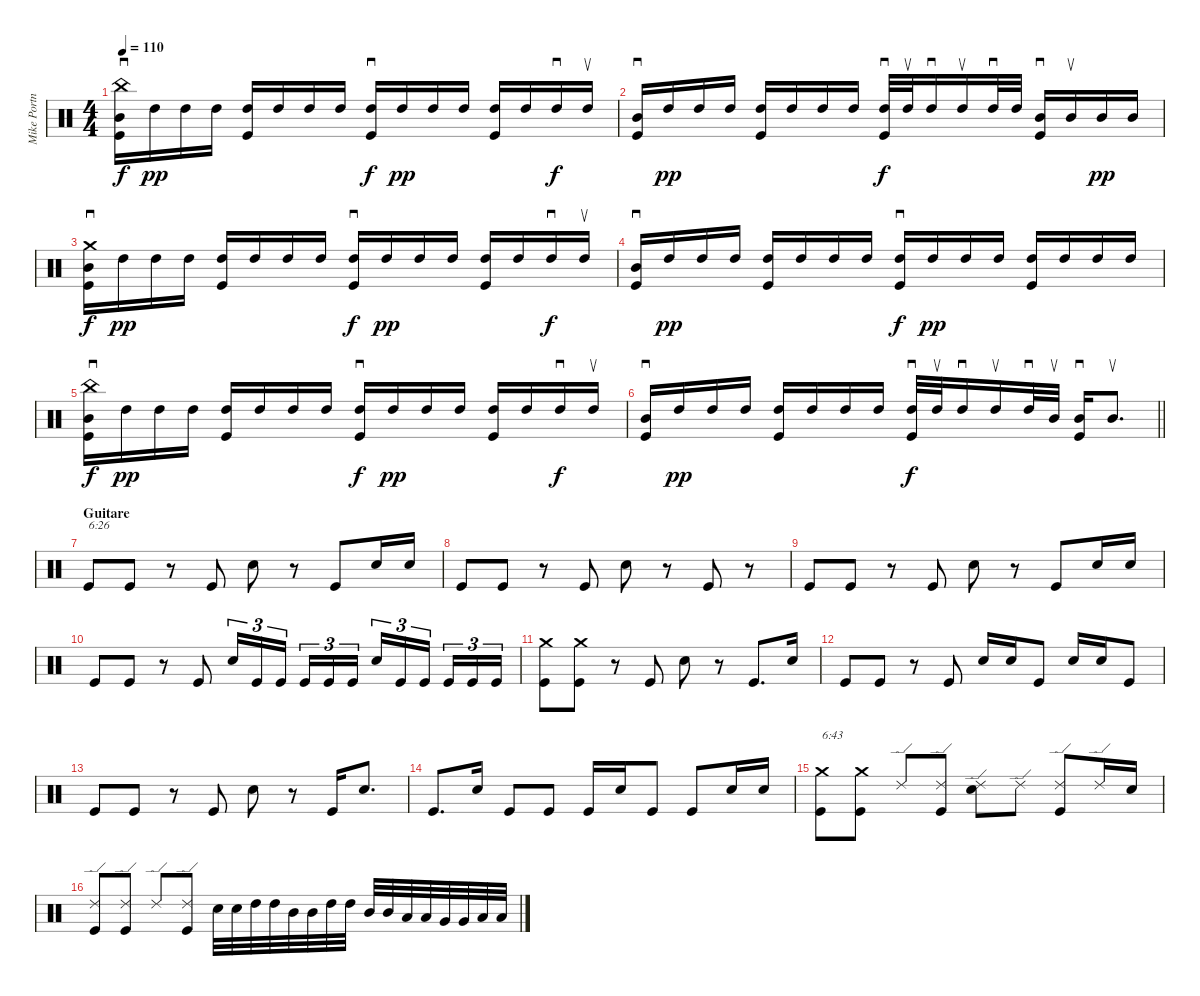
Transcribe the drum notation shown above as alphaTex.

\track ("Mike Portnoy" "Mike Portn") {instrument percussion}
\staff {score}
\articulation defaults
\ts (4 4)
\tempo 110
\clef neutral
\ks c
("China (hit)" "Mid Tom (hit)" "Kick (hit)").16{sd dy f} "High Tom (hit)".16{dy pp} "High Tom (hit)".16 "High Tom (hit)".16 ("High Tom (hit)" "Kick (hit)").16 "High Tom (hit)".16 "High Tom (hit)".16 "High Tom (hit)".16 ("High Tom (hit)" "Kick (hit)").16{sd dy f} "High Tom (hit)".16{dy pp} "High Tom (hit)".16 "High Tom (hit)".16 ("High Tom (hit)" "Kick (hit)").16 "High Tom (hit)".16 "High Tom (hit)".16{sd dy f} "High Tom (hit)".16{su} |
("Mid Tom (hit)" "Kick (hit)").16{sd} "High Tom (hit)".16{dy pp} "High Tom (hit)".16 "High Tom (hit)".16 ("High Tom (hit)" "Kick (hit)").16 "High Tom (hit)".16 "High Tom (hit)".16 "High Tom (hit)".16 ("High Tom (hit)" "Kick (hit)").32{sd dy f} "High Tom (hit)".32{su} "High Tom (hit)".16{sd} "High Tom (hit)".16{su} "High Tom (hit)".32{sd} "High Tom (hit)".32 ("Mid Tom (hit)" "Kick (hit)").16{sd} "Mid Tom (hit)".16{su} "Mid Tom (hit)".16{dy pp} "Mid Tom (hit)".16 |
("Crash medium (hit)" "Mid Tom (hit)" "Kick (hit)").16{sd dy f} "High Tom (hit)".16{dy pp} "High Tom (hit)".16 "High Tom (hit)".16 ("High Tom (hit)" "Kick (hit)").16 "High Tom (hit)".16 "High Tom (hit)".16 "High Tom (hit)".16 ("High Tom (hit)" "Kick (hit)").16{sd dy f} "High Tom (hit)".16{dy pp} "High Tom (hit)".16 "High Tom (hit)".16 ("High Tom (hit)" "Kick (hit)").16 "High Tom (hit)".16 "High Tom (hit)".16{sd dy f} "High Tom (hit)".16{su} |
("Mid Tom (hit)" "Kick (hit)").16{sd} "High Tom (hit)".16{dy pp} "High Tom (hit)".16 "High Tom (hit)".16 ("High Tom (hit)" "Kick (hit)").16 "High Tom (hit)".16 "High Tom (hit)".16 "High Tom (hit)".16 ("High Tom (hit)" "Kick (hit)").16{sd dy f} "High Tom (hit)".16{dy pp} "High Tom (hit)".16 "High Tom (hit)".16 ("High Tom (hit)" "Kick (hit)").16 "High Tom (hit)".16 "High Tom (hit)".16 "High Tom (hit)".16 |
("China (hit)" "Mid Tom (hit)" "Kick (hit)").16{sd dy f} "High Tom (hit)".16{dy pp} "High Tom (hit)".16 "High Tom (hit)".16 ("High Tom (hit)" "Kick (hit)").16 "High Tom (hit)".16 "High Tom (hit)".16 "High Tom (hit)".16 ("High Tom (hit)" "Kick (hit)").16{sd dy f} "High Tom (hit)".16{dy pp} "High Tom (hit)".16 "High Tom (hit)".16 ("High Tom (hit)" "Kick (hit)").16 "High Tom (hit)".16 "High Tom (hit)".16{sd dy f} "High Tom (hit)".16{su} |
\barLineRight lightlight
("Mid Tom (hit)" "Kick (hit)").16{sd} "High Tom (hit)".16{dy pp} "High Tom (hit)".16 "High Tom (hit)".16 ("High Tom (hit)" "Kick (hit)").16 "High Tom (hit)".16 "High Tom (hit)".16 "High Tom (hit)".16 ("High Tom (hit)" "Kick (hit)").32{sd dy f} "High Tom (hit)".32{su} "High Tom (hit)".16{sd} "High Tom (hit)".16{su} "High Tom (hit)".32{sd} "Mid Tom (hit)".32{su} ("Mid Tom (hit)" "Kick (hit)").16{sd} "Mid Tom (hit)".8{d su} |
\section ("" "Guitare")
"Kick (hit)".8{txt "6:26"} "Kick (hit)".8 r.8 "Kick (hit)".8 "Snare (hit) 2".8 r.8 "Kick (hit)".8 "Snare (hit) 2".16 "Snare (hit) 2".16 |
"Kick (hit)".8 "Kick (hit)".8 r.8 "Kick (hit)".8 "Snare (hit) 2".8 r.8 "Kick (hit)".8 r.8 |
"Kick (hit)".8 "Kick (hit)".8 r.8 "Kick (hit)".8 "Snare (hit) 2".8 r.8 "Kick (hit)".8 "Snare (hit) 2".16 "Snare (hit) 2".16 |
"Kick (hit)".8 "Kick (hit)".8 r.8 "Kick (hit)".8 "Snare (hit) 2".16{tu (3 2)} "Kick (hit)".16{tu (3 2)} "Kick (hit)".16{tu (3 2)} "Kick (hit)".16{tu (3 2)} "Kick (hit)".16{tu (3 2)} "Kick (hit)".16{tu (3 2)} "Snare (hit) 2".16{tu (3 2)} "Kick (hit)".16{tu (3 2)} "Kick (hit)".16{tu (3 2)} "Kick (hit)".16{tu (3 2)} "Kick (hit)".16{tu (3 2)} "Kick (hit)".16{tu (3 2)} |
("Crash medium (hit)" "Kick (hit)").8 ("Crash medium (hit)" "Kick (hit)").8 r.8 "Kick (hit)".8 "Snare (hit) 2".8 r.8 "Kick (hit)".8{d} "Snare (hit) 2".16 |
"Kick (hit)".8 "Kick (hit)".8 r.8 "Kick (hit)".8 "Snare (hit) 2".16 "Snare (hit) 2".16 "Kick (hit)".8 "Snare (hit) 2".16 "Snare (hit) 2".16 "Kick (hit)".8 |
"Kick (hit)".8 "Kick (hit)".8 r.8 "Kick (hit)".8 "Snare (hit) 2".8 r.8 "Kick (hit)".16 "Snare (hit) 2".8{d} |
"Kick (hit)".8{d} "Snare (hit) 2".16 "Kick (hit)".8 "Kick (hit)".8 "Kick (hit)".16 "Snare (hit) 2".16 "Kick (hit)".8 "Kick (hit)".8 "Snare (hit) 2".16 "Snare (hit) 2".16 |
("Crash medium (hit)" "Kick (hit)").8{txt "6:43"} ("Crash medium (hit)" "Kick (hit)").8 "Ride (edge) 2".8 ("Ride (edge) 2" "Kick (hit)").8 ("Ride (edge) 2" "Snare (hit) 2").8 "Ride (edge) 2".8 ("Ride (edge) 2" "Kick (hit)").8 "Ride (edge) 2".16 "Snare (hit) 2".16 |
("Ride (edge) 2" "Kick (hit)").8 ("Ride (edge) 2" "Kick (hit)").8 "Ride (edge) 2".8 ("Ride (edge) 2" "Kick (hit)").8 "Snare (hit) 2".32 "Snare (hit) 2".32 "High Tom (hit)".32 "High Tom (hit)".32 "Mid Tom (hit)".32 "Mid Tom (hit)".32 "High Tom (hit)".32 "High Tom (hit)".32 "Mid Tom (hit)".32 "Mid Tom (hit)".32 "Low Tom (hit)".32 "Low Tom (hit)".32 "Very Low Tom (hit)".32 "Very Low Tom (hit)".32 "Low Floor Tom (hit)".32 "Low Floor Tom (hit)".32
